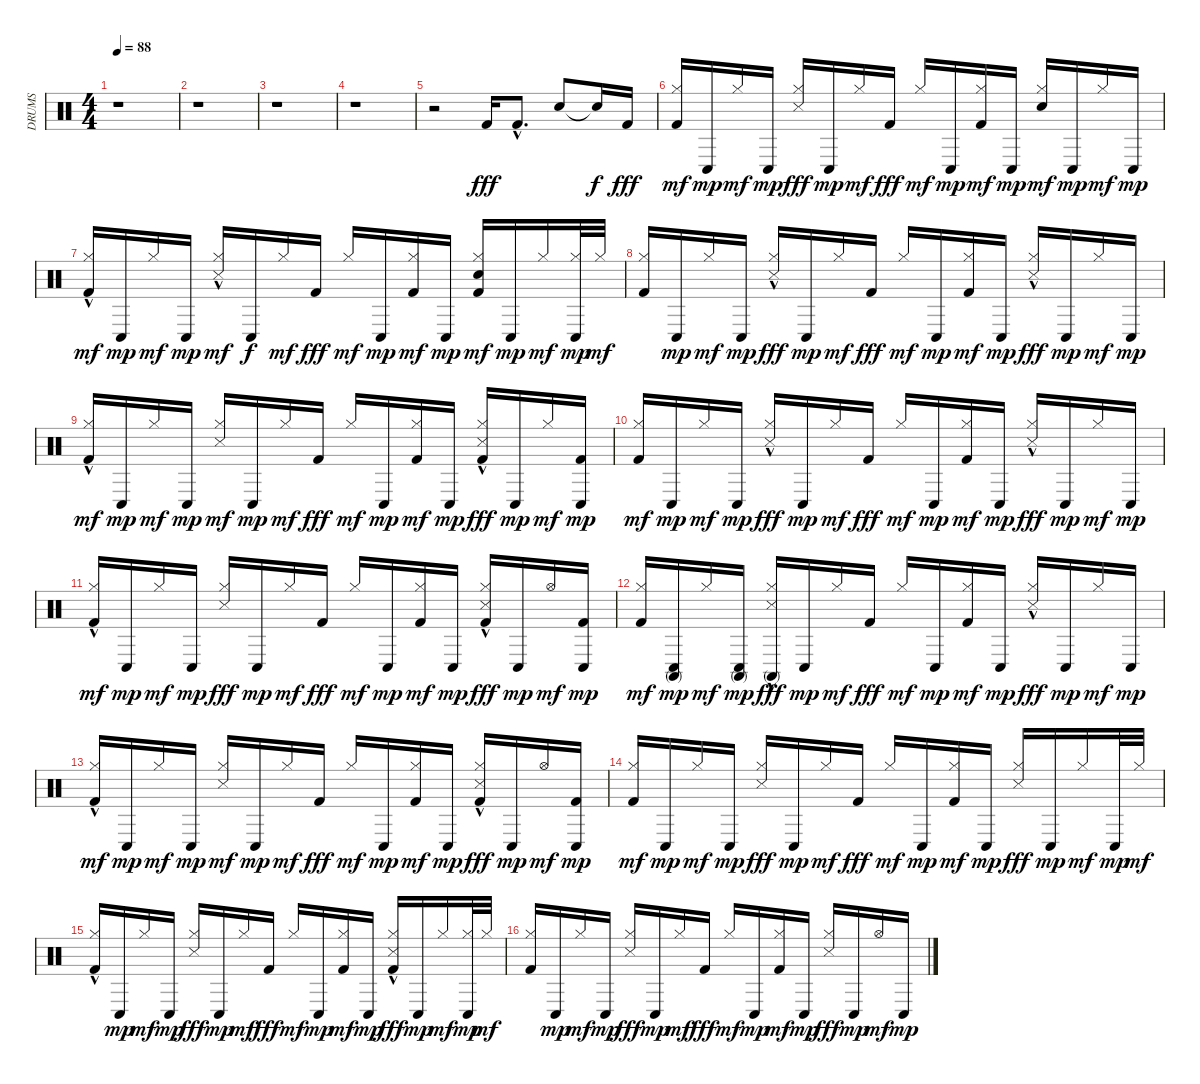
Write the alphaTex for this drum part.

\track ("DRUMS" "DRUMS") {instrument percussion}
\staff {score}
\articulation defaults
\ts (4 4)
\tempo 88
\clef neutral
\ks c
r.1{dy fff} |
r.1 |
r.1 |
r.1 |
r.2 "Kick (hit) 2".16 "Kick (hit) 2"{hac}.8{d} "Snare (hit) 2".8 "Snare (hit)"{t}.16{dy f} "Kick (hit) 2".16{dy fff} |
("Kick (hit) 2" "Hi-Hat (closed)").16{dy mf} "Conga low (hit)".16{dy mp} "Hi-Hat (closed)".16{dy mf} "Conga low (hit)".16{dy mp} ("Hi-Hat (closed)" "Snare (side stick) 3").16{dy fff} "Conga low (hit)".16{dy mp} "Hi-Hat (closed)".16{dy mf} "Kick (hit) 2".16{dy fff} "Hi-Hat (closed)".16{dy mf} "Conga low (hit)".16{dy mp} ("Kick (hit) 2" "Hi-Hat (closed)").16{dy mf} "Conga low (hit)".16{dy mp} ("Snare (hit) 2" "Hi-Hat (closed)").16{dy mf} "Conga low (hit)".16{dy mp} "Hi-Hat (closed)".16{dy mf} "Conga low (hit)".16{dy mp} |
("Kick (hit) 2"{hac} "Hi-Hat (closed)").16{dy mf} "Conga low (hit)".16{dy mp} "Hi-Hat (closed)".16{dy mf} "Conga low (hit)".16{dy mp} ("Snare (side stick) 3"{hac} "Hi-Hat (closed)").16{dy mf} "Conga low (hit)".16{dy f} "Hi-Hat (closed)".16{dy mf} "Kick (hit) 2".16{dy fff} "Hi-Hat (closed)".16{dy mf} "Conga low (hit)".16{dy mp} ("Kick (hit) 2" "Hi-Hat (closed)").16{dy mf} "Conga low (hit)".16{dy mp} ("Kick (hit) 2" "Snare (hit) 2" "Hi-Hat (closed)").16{dy mf} "Conga low (hit)".16{dy mp} "Hi-Hat (closed)".16{dy mf} ("Hi-Hat (closed)" "Conga low (hit)").32{dy mp} "Hi-Hat (closed)".32{dy mf} |
("Kick (hit) 2" "Hi-Hat (closed)").16 "Conga low (hit)".16{dy mp} "Hi-Hat (closed)".16{dy mf} "Conga low (hit)".16{dy mp} ("Hi-Hat (closed)" "Snare (side stick) 3"{hac}).16{dy fff} "Conga low (hit)".16{dy mp} "Hi-Hat (closed)".16{dy mf} "Kick (hit) 2".16{dy fff} "Hi-Hat (closed)".16{dy mf} "Conga low (hit)".16{dy mp} ("Kick (hit) 2" "Hi-Hat (closed)").16{dy mf} "Conga low (hit)".16{dy mp} ("Hi-Hat (closed)" "Snare (side stick) 3"{hac}).16{dy fff} "Conga low (hit)".16{dy mp} "Hi-Hat (closed)".16{dy mf} "Conga low (hit)".16{dy mp} |
("Kick (hit) 2"{hac} "Hi-Hat (closed)").16{dy mf} "Conga low (hit)".16{dy mp} "Hi-Hat (closed)".16{dy mf} "Conga low (hit)".16{dy mp} ("Snare (side stick) 3" "Hi-Hat (closed)").16{dy mf} "Conga low (hit)".16{dy mp} "Hi-Hat (closed)".16{dy mf} "Kick (hit) 2".16{dy fff} "Hi-Hat (closed)".16{dy mf} "Conga low (hit)".16{dy mp} ("Kick (hit) 2" "Hi-Hat (closed)").16{dy mf} "Conga low (hit)".16{dy mp} ("Kick (hit) 2"{hac} "Hi-Hat (closed)" "Snare (side stick) 3").16{dy fff} "Conga low (hit)".16{dy mp} "Hi-Hat (closed)".16{dy mf} ("Kick (hit) 2" "Conga low (hit)").16{dy mp} |
("Kick (hit) 2" "Hi-Hat (closed)").16{dy mf} "Conga low (hit)".16{dy mp} "Hi-Hat (closed)".16{dy mf} "Conga low (hit)".16{dy mp} ("Hi-Hat (closed)" "Snare (side stick) 3"{hac}).16{dy fff} "Conga low (hit)".16{dy mp} "Hi-Hat (closed)".16{dy mf} "Kick (hit) 2".16{dy fff} "Hi-Hat (closed)".16{dy mf} "Conga low (hit)".16{dy mp} ("Kick (hit) 2" "Hi-Hat (closed)").16{dy mf} "Conga low (hit)".16{dy mp} ("Hi-Hat (closed)" "Snare (side stick) 3"{hac}).16{dy fff} "Conga low (hit)".16{dy mp} "Hi-Hat (closed)".16{dy mf} "Conga low (hit)".16{dy mp} |
("Kick (hit) 2"{hac} "Hi-Hat (closed)").16{dy mf} "Conga low (hit)".16{dy mp} "Hi-Hat (closed)".16{dy mf} "Conga low (hit)".16{dy mp} ("Hi-Hat (closed)" "Snare (side stick) 3").16{dy fff} "Conga low (hit)".16{dy mp} "Hi-Hat (closed)".16{dy mf} "Kick (hit) 2".16{dy fff} "Hi-Hat (closed)".16{dy mf} "Conga low (hit)".16{dy mp} ("Kick (hit) 2" "Hi-Hat (closed)").16{dy mf} "Conga low (hit)".16{dy mp} ("Kick (hit) 2"{hac} "Hi-Hat (closed)" "Snare (side stick) 3").16{dy fff} "Conga low (hit)".16{dy mp} "Hi-Hat (open)".16{dy mf} ("Kick (hit) 2" "Conga low (hit)").16{dy mp} |
("Kick (hit) 2" "Hi-Hat (closed)").16{dy mf} ("Conga low (hit)" "Conga high (mute)").16{dy mp} "Hi-Hat (closed)".16{dy mf} ("Conga low (hit)" "Conga high (mute)").16{dy mp} ("Hi-Hat (closed)" "Conga high (mute)" "Snare (side stick) 3"{hac}).16{dy fff} "Conga low (hit)".16{dy mp} "Hi-Hat (closed)".16{dy mf} "Kick (hit) 2".16{dy fff} "Hi-Hat (closed)".16{dy mf} "Conga low (hit)".16{dy mp} ("Kick (hit) 2" "Hi-Hat (closed)").16{dy mf} "Conga low (hit)".16{dy mp} ("Hi-Hat (closed)" "Snare (side stick) 3"{hac}).16{dy fff} "Conga low (hit)".16{dy mp} "Hi-Hat (closed)".16{dy mf} "Conga low (hit)".16{dy mp} |
("Kick (hit) 2"{hac} "Hi-Hat (closed)").16{dy mf} "Conga low (hit)".16{dy mp} "Hi-Hat (closed)".16{dy mf} "Conga low (hit)".16{dy mp} ("Snare (side stick) 3" "Hi-Hat (closed)").16{dy mf} "Conga low (hit)".16{dy mp} "Hi-Hat (closed)".16{dy mf} "Kick (hit) 2".16{dy fff} "Hi-Hat (closed)".16{dy mf} "Conga low (hit)".16{dy mp} ("Kick (hit) 2" "Hi-Hat (closed)").16{dy mf} "Conga low (hit)".16{dy mp} ("Kick (hit) 2"{hac} "Hi-Hat (closed)" "Snare (side stick) 3").16{dy fff} "Conga low (hit)".16{dy mp} "Hi-Hat (open)".16{dy mf} ("Kick (hit) 2" "Conga low (hit)").16{dy mp} |
("Kick (hit) 2" "Hi-Hat (closed)").16{dy mf} "Conga low (hit)".16{dy mp} "Hi-Hat (closed)".16{dy mf} "Conga low (hit)".16{dy mp} ("Hi-Hat (closed)" "Snare (side stick) 3").16{dy fff} "Conga low (hit)".16{dy mp} "Hi-Hat (closed)".16{dy mf} "Kick (hit) 2".16{dy fff} "Hi-Hat (closed)".16{dy mf} "Conga low (hit)".16{dy mp} ("Kick (hit) 2" "Hi-Hat (closed)").16{dy mf} "Conga low (hit)".16{dy mp} ("Hi-Hat (closed)" "Snare (side stick) 3").16{dy fff} "Conga low (hit)".16{dy mp} "Hi-Hat (closed)".16{dy mf} "Conga low (hit)".32{dy mp} "Hi-Hat (closed)".32{dy mf} |
("Kick (hit) 2"{hac} "Hi-Hat (closed)").16 "Conga low (hit)".16{dy mp} "Hi-Hat (closed)".16{dy mf} "Conga low (hit)".16{dy mp} ("Hi-Hat (closed)" "Snare (side stick) 3").16{dy fff} "Conga low (hit)".16{dy mp} "Hi-Hat (closed)".16{dy mf} "Kick (hit) 2".16{dy fff} "Hi-Hat (closed)".16{dy mf} "Conga low (hit)".16{dy mp} ("Kick (hit) 2" "Hi-Hat (closed)").16{dy mf} "Conga low (hit)".16{dy mp} ("Kick (hit) 2"{hac} "Hi-Hat (closed)" "Snare (side stick) 3").16{dy fff} "Conga low (hit)".16{dy mp} "Hi-Hat (closed)".16{dy mf} ("Hi-Hat (closed)" "Conga low (hit)").32{dy mp} "Hi-Hat (closed)".32{dy mf} |
("Kick (hit) 2" "Hi-Hat (closed)").16 "Conga low (hit)".16{dy mp} "Hi-Hat (closed)".16{dy mf} "Conga low (hit)".16{dy mp} ("Hi-Hat (closed)" "Snare (side stick) 3").16{dy fff} "Conga low (hit)".16{dy mp} "Hi-Hat (closed)".16{dy mf} "Kick (hit) 2".16{dy fff} "Hi-Hat (closed)".16{dy mf} "Conga low (hit)".16{dy mp} ("Kick (hit) 2" "Hi-Hat (closed)").16{dy mf} "Conga low (hit)".16{dy mp} ("Hi-Hat (closed)" "Snare (side stick) 3").16{dy fff} "Conga low (hit)".16{dy mp} "Hi-Hat (open)".16{dy mf} "Conga low (hit)".16{dy mp}
